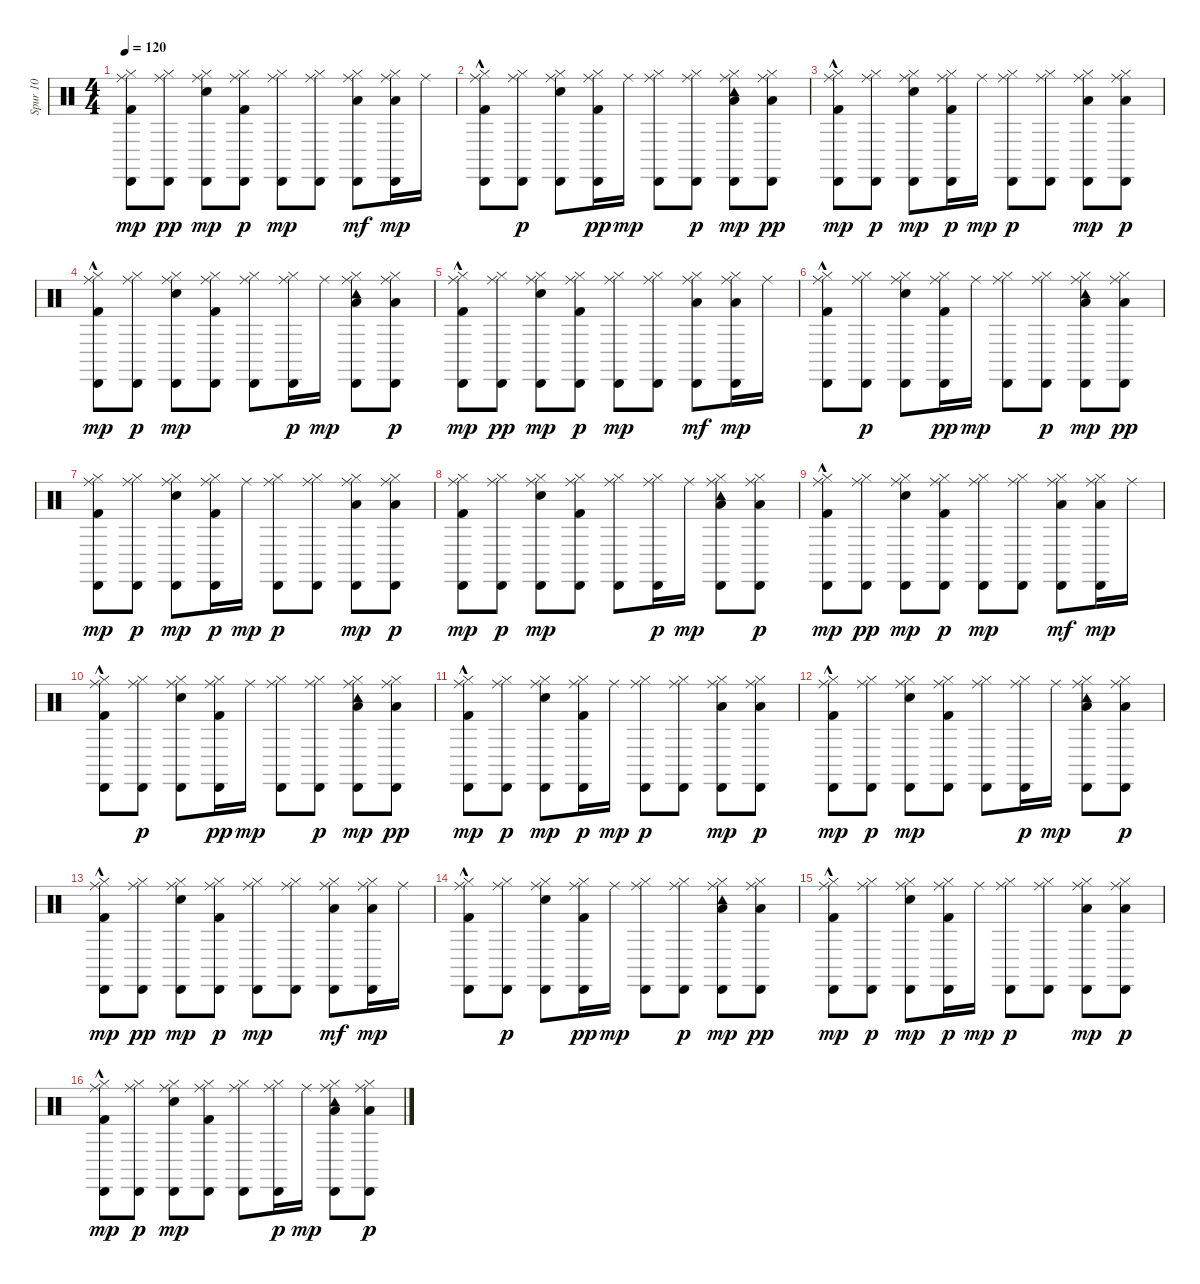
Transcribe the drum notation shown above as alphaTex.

\track ("Spur 10" "Spur 10") {instrument percussion}
\staff {score}
\articulation defaults
\ts (4 4)
\tempo 120
\clef neutral
\ks c
("Kick (hit) 2" "Hi-Hat (closed)" "Cabasa (hit)" "Ride (middle)").8{dy mp} ("Hi-Hat (closed)" "Cabasa (hit)" "Ride (middle)").8{dy pp} ("Snare (hit) 2" "Hi-Hat (closed)" "Cabasa (hit)" "Ride (middle)").8{dy mp} ("Kick (hit) 2" "Hi-Hat (closed)" "Cabasa (hit)" "Ride (middle)").8{dy p} ("Hi-Hat (closed)" "Cabasa (hit)" "Ride (middle)").8{dy mp} ("Hi-Hat (closed)" "Cabasa (hit)" "Ride (middle)").8 ("Low Floor Tom (hit)" "Hi-Hat (closed)" "Cabasa (hit)" "Ride (middle)").8{dy mf} ("Low Floor Tom (hit)" "Hi-Hat (closed)" "Cabasa (hit)" "Ride (middle)").16{dy mp} "Ride (middle)".16 |
("Kick (hit) 2"{hac} "Hi-Hat (closed)" "Cabasa (hit)" "Ride (middle)").8 ("Hi-Hat (closed)" "Cabasa (hit)" "Ride (middle)").8{dy p} ("Snare (hit) 2" "Hi-Hat (closed)" "Cabasa (hit)" "Ride (middle)").8 ("Kick (hit) 2" "Hi-Hat (closed)" "Cabasa (hit)" "Ride (middle)").16{dy pp} "Ride (middle)".16{dy mp} ("Hi-Hat (closed)" "Cabasa (hit)" "Ride (middle)").8 ("Hi-Hat (closed)" "Cabasa (hit)" "Ride (middle)").8{dy p} ("Low Tom (hit)" "Hi-Hat (closed)" "Cabasa (hit)" "Tambourine (hit)" "Ride (middle)").8{dy mp} ("Low Tom (hit)" "Hi-Hat (closed)" "Cabasa (hit)" "Ride (middle)").8{dy pp} |
("Kick (hit) 2"{hac} "Hi-Hat (closed)" "Cabasa (hit)" "Ride (middle)").8{dy mp} ("Hi-Hat (closed)" "Cabasa (hit)" "Ride (middle)").8{dy p} ("Snare (hit) 2" "Hi-Hat (closed)" "Cabasa (hit)" "Ride (middle)").8{dy mp} ("Kick (hit) 2" "Hi-Hat (closed)" "Cabasa (hit)" "Ride (middle)").16{dy p} "Ride (middle)".16{dy mp} ("Hi-Hat (closed)" "Cabasa (hit)" "Ride (middle)").8{dy p} ("Hi-Hat (closed)" "Cabasa (hit)" "Ride (middle)").8 ("Low Floor Tom (hit)" "Hi-Hat (closed)" "Cabasa (hit)" "Ride (middle)").8{dy mp} ("Low Floor Tom (hit)" "Hi-Hat (closed)" "Cabasa (hit)" "Ride (middle)").8{dy p} |
("Kick (hit) 2"{hac} "Hi-Hat (closed)" "Cabasa (hit)" "Ride (middle)").8{dy mp} ("Hi-Hat (closed)" "Cabasa (hit)" "Ride (middle)").8{dy p} ("Snare (hit) 2" "Hi-Hat (closed)" "Cabasa (hit)" "Ride (middle)").8{dy mp} ("Kick (hit) 2" "Hi-Hat (closed)" "Cabasa (hit)" "Ride (middle)").8 ("Hi-Hat (closed)" "Cabasa (hit)" "Ride (middle)").8 ("Hi-Hat (closed)" "Cabasa (hit)" "Ride (middle)").16{dy p} "Ride (middle)".16{dy mp} ("Low Tom (hit)" "Hi-Hat (closed)" "Cabasa (hit)" "Tambourine (hit)" "Ride (middle)").8 ("Low Tom (hit)" "Hi-Hat (closed)" "Cabasa (hit)" "Ride (middle)").8{dy p} |
("Kick (hit) 2"{hac} "Hi-Hat (closed)" "Cabasa (hit)" "Ride (middle)").8{dy mp} ("Hi-Hat (closed)" "Cabasa (hit)" "Ride (middle)").8{dy pp} ("Snare (hit) 2" "Hi-Hat (closed)" "Cabasa (hit)" "Ride (middle)").8{dy mp} ("Kick (hit) 2" "Hi-Hat (closed)" "Cabasa (hit)" "Ride (middle)").8{dy p} ("Hi-Hat (closed)" "Cabasa (hit)" "Ride (middle)").8{dy mp} ("Hi-Hat (closed)" "Cabasa (hit)" "Ride (middle)").8 ("Low Floor Tom (hit)" "Hi-Hat (closed)" "Cabasa (hit)" "Ride (middle)").8{dy mf} ("Low Floor Tom (hit)" "Hi-Hat (closed)" "Cabasa (hit)" "Ride (middle)").16{dy mp} "Ride (middle)".16 |
("Kick (hit) 2"{hac} "Hi-Hat (closed)" "Cabasa (hit)" "Ride (middle)").8 ("Hi-Hat (closed)" "Cabasa (hit)" "Ride (middle)").8{dy p} ("Snare (hit) 2" "Hi-Hat (closed)" "Cabasa (hit)" "Ride (middle)").8 ("Kick (hit) 2" "Hi-Hat (closed)" "Cabasa (hit)" "Ride (middle)").16{dy pp} "Ride (middle)".16{dy mp} ("Hi-Hat (closed)" "Cabasa (hit)" "Ride (middle)").8 ("Hi-Hat (closed)" "Cabasa (hit)" "Ride (middle)").8{dy p} ("Low Tom (hit)" "Hi-Hat (closed)" "Cabasa (hit)" "Tambourine (hit)" "Ride (middle)").8{dy mp} ("Low Tom (hit)" "Hi-Hat (closed)" "Cabasa (hit)" "Ride (middle)").8{dy pp} |
("Kick (hit) 2" "Hi-Hat (closed)" "Cabasa (hit)" "Ride (middle)").8{dy mp} ("Hi-Hat (closed)" "Cabasa (hit)" "Ride (middle)").8{dy p} ("Snare (hit) 2" "Hi-Hat (closed)" "Cabasa (hit)" "Ride (middle)").8{dy mp} ("Kick (hit) 2" "Hi-Hat (closed)" "Cabasa (hit)" "Ride (middle)").16{dy p} "Ride (middle)".16{dy mp} ("Hi-Hat (closed)" "Cabasa (hit)" "Ride (middle)").8{dy p} ("Hi-Hat (closed)" "Cabasa (hit)" "Ride (middle)").8 ("Low Floor Tom (hit)" "Hi-Hat (closed)" "Cabasa (hit)" "Ride (middle)").8{dy mp} ("Low Floor Tom (hit)" "Hi-Hat (closed)" "Cabasa (hit)" "Ride (middle)").8{dy p} |
("Kick (hit) 2" "Hi-Hat (closed)" "Cabasa (hit)" "Ride (middle)").8{dy mp} ("Hi-Hat (closed)" "Cabasa (hit)" "Ride (middle)").8{dy p} ("Snare (hit) 2" "Hi-Hat (closed)" "Cabasa (hit)" "Ride (middle)").8{dy mp} ("Kick (hit) 2" "Hi-Hat (closed)" "Cabasa (hit)" "Ride (middle)").8 ("Hi-Hat (closed)" "Cabasa (hit)" "Ride (middle)").8 ("Hi-Hat (closed)" "Cabasa (hit)" "Ride (middle)").16{dy p} "Ride (middle)".16{dy mp} ("Low Tom (hit)" "Hi-Hat (closed)" "Cabasa (hit)" "Tambourine (hit)" "Ride (middle)").8 ("Low Tom (hit)" "Hi-Hat (closed)" "Cabasa (hit)" "Ride (middle)").8{dy p} |
("Kick (hit) 2"{hac} "Hi-Hat (closed)" "Cabasa (hit)" "Ride (middle)").8{dy mp} ("Hi-Hat (closed)" "Cabasa (hit)" "Ride (middle)").8{dy pp} ("Snare (hit) 2" "Hi-Hat (closed)" "Cabasa (hit)" "Ride (middle)").8{dy mp} ("Kick (hit) 2" "Hi-Hat (closed)" "Cabasa (hit)" "Ride (middle)").8{dy p} ("Hi-Hat (closed)" "Cabasa (hit)" "Ride (middle)").8{dy mp} ("Hi-Hat (closed)" "Cabasa (hit)" "Ride (middle)").8 ("Low Floor Tom (hit)" "Hi-Hat (closed)" "Cabasa (hit)" "Ride (middle)").8{dy mf} ("Low Floor Tom (hit)" "Hi-Hat (closed)" "Cabasa (hit)" "Ride (middle)").16{dy mp} "Ride (middle)".16 |
("Kick (hit) 2"{hac} "Hi-Hat (closed)" "Cabasa (hit)" "Ride (middle)").8 ("Hi-Hat (closed)" "Cabasa (hit)" "Ride (middle)").8{dy p} ("Snare (hit) 2" "Hi-Hat (closed)" "Cabasa (hit)" "Ride (middle)").8 ("Kick (hit) 2" "Hi-Hat (closed)" "Cabasa (hit)" "Ride (middle)").16{dy pp} "Ride (middle)".16{dy mp} ("Hi-Hat (closed)" "Cabasa (hit)" "Ride (middle)").8 ("Hi-Hat (closed)" "Cabasa (hit)" "Ride (middle)").8{dy p} ("Low Tom (hit)" "Hi-Hat (closed)" "Cabasa (hit)" "Tambourine (hit)" "Ride (middle)").8{dy mp} ("Low Tom (hit)" "Hi-Hat (closed)" "Cabasa (hit)" "Ride (middle)").8{dy pp} |
("Kick (hit) 2"{hac} "Hi-Hat (closed)" "Cabasa (hit)" "Ride (middle)").8{dy mp} ("Hi-Hat (closed)" "Cabasa (hit)" "Ride (middle)").8{dy p} ("Snare (hit) 2" "Hi-Hat (closed)" "Cabasa (hit)" "Ride (middle)").8{dy mp} ("Kick (hit) 2" "Hi-Hat (closed)" "Cabasa (hit)" "Ride (middle)").16{dy p} "Ride (middle)".16{dy mp} ("Hi-Hat (closed)" "Cabasa (hit)" "Ride (middle)").8{dy p} ("Hi-Hat (closed)" "Cabasa (hit)" "Ride (middle)").8 ("Low Floor Tom (hit)" "Hi-Hat (closed)" "Cabasa (hit)" "Ride (middle)").8{dy mp} ("Low Floor Tom (hit)" "Hi-Hat (closed)" "Cabasa (hit)" "Ride (middle)").8{dy p} |
("Kick (hit) 2"{hac} "Hi-Hat (closed)" "Cabasa (hit)" "Ride (middle)").8{dy mp} ("Hi-Hat (closed)" "Cabasa (hit)" "Ride (middle)").8{dy p} ("Snare (hit) 2" "Hi-Hat (closed)" "Cabasa (hit)" "Ride (middle)").8{dy mp} ("Kick (hit) 2" "Hi-Hat (closed)" "Cabasa (hit)" "Ride (middle)").8 ("Hi-Hat (closed)" "Cabasa (hit)" "Ride (middle)").8 ("Hi-Hat (closed)" "Cabasa (hit)" "Ride (middle)").16{dy p} "Ride (middle)".16{dy mp} ("Low Tom (hit)" "Hi-Hat (closed)" "Cabasa (hit)" "Tambourine (hit)" "Ride (middle)").8 ("Low Tom (hit)" "Hi-Hat (closed)" "Cabasa (hit)" "Ride (middle)").8{dy p} |
("Kick (hit) 2"{hac} "Hi-Hat (closed)" "Cabasa (hit)" "Ride (middle)").8{dy mp} ("Hi-Hat (closed)" "Cabasa (hit)" "Ride (middle)").8{dy pp} ("Snare (hit) 2" "Hi-Hat (closed)" "Cabasa (hit)" "Ride (middle)").8{dy mp} ("Kick (hit) 2" "Hi-Hat (closed)" "Cabasa (hit)" "Ride (middle)").8{dy p} ("Hi-Hat (closed)" "Cabasa (hit)" "Ride (middle)").8{dy mp} ("Hi-Hat (closed)" "Cabasa (hit)" "Ride (middle)").8 ("Low Floor Tom (hit)" "Hi-Hat (closed)" "Cabasa (hit)" "Ride (middle)").8{dy mf} ("Low Floor Tom (hit)" "Hi-Hat (closed)" "Cabasa (hit)" "Ride (middle)").16{dy mp} "Ride (middle)".16 |
("Kick (hit) 2"{hac} "Hi-Hat (closed)" "Cabasa (hit)" "Ride (middle)").8 ("Hi-Hat (closed)" "Cabasa (hit)" "Ride (middle)").8{dy p} ("Snare (hit) 2" "Hi-Hat (closed)" "Cabasa (hit)" "Ride (middle)").8 ("Kick (hit) 2" "Hi-Hat (closed)" "Cabasa (hit)" "Ride (middle)").16{dy pp} "Ride (middle)".16{dy mp} ("Hi-Hat (closed)" "Cabasa (hit)" "Ride (middle)").8 ("Hi-Hat (closed)" "Cabasa (hit)" "Ride (middle)").8{dy p} ("Low Tom (hit)" "Hi-Hat (closed)" "Cabasa (hit)" "Tambourine (hit)" "Ride (middle)").8{dy mp} ("Low Tom (hit)" "Hi-Hat (closed)" "Cabasa (hit)" "Ride (middle)").8{dy pp} |
("Kick (hit) 2"{hac} "Hi-Hat (closed)" "Cabasa (hit)" "Ride (middle)").8{dy mp} ("Hi-Hat (closed)" "Cabasa (hit)" "Ride (middle)").8{dy p} ("Snare (hit) 2" "Hi-Hat (closed)" "Cabasa (hit)" "Ride (middle)").8{dy mp} ("Kick (hit) 2" "Hi-Hat (closed)" "Cabasa (hit)" "Ride (middle)").16{dy p} "Ride (middle)".16{dy mp} ("Hi-Hat (closed)" "Cabasa (hit)" "Ride (middle)").8{dy p} ("Hi-Hat (closed)" "Cabasa (hit)" "Ride (middle)").8 ("Low Floor Tom (hit)" "Hi-Hat (closed)" "Cabasa (hit)" "Ride (middle)").8{dy mp} ("Low Floor Tom (hit)" "Hi-Hat (closed)" "Cabasa (hit)" "Ride (middle)").8{dy p} |
("Kick (hit) 2"{hac} "Hi-Hat (closed)" "Cabasa (hit)" "Ride (middle)").8{dy mp} ("Hi-Hat (closed)" "Cabasa (hit)" "Ride (middle)").8{dy p} ("Snare (hit) 2" "Hi-Hat (closed)" "Cabasa (hit)" "Ride (middle)").8{dy mp} ("Kick (hit) 2" "Hi-Hat (closed)" "Cabasa (hit)" "Ride (middle)").8 ("Hi-Hat (closed)" "Cabasa (hit)" "Ride (middle)").8 ("Hi-Hat (closed)" "Cabasa (hit)" "Ride (middle)").16{dy p} "Ride (middle)".16{dy mp} ("Low Tom (hit)" "Hi-Hat (closed)" "Cabasa (hit)" "Tambourine (hit)" "Ride (middle)").8 ("Low Tom (hit)" "Hi-Hat (closed)" "Cabasa (hit)" "Ride (middle)").8{dy p}
